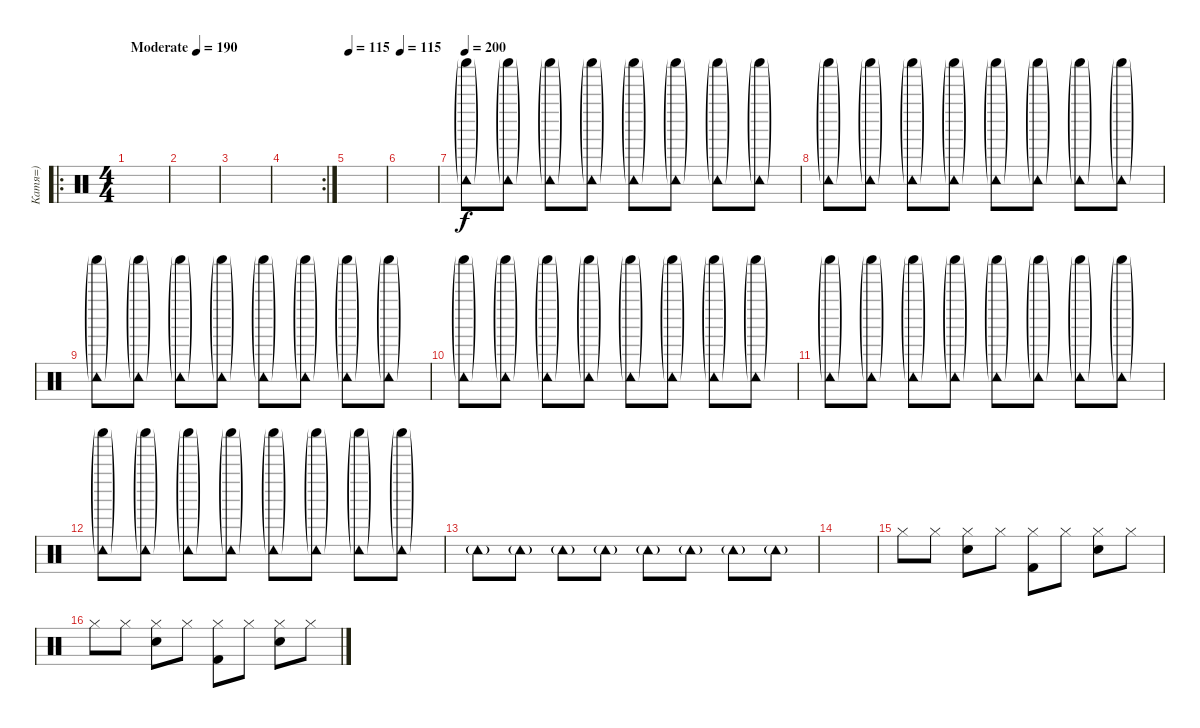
\track ("Катя=)" "Катя=)") {instrument percussion}
\staff {score}
\articulation defaults
\ro
\ts (4 4)
\tempo (190 "Moderate")
\tempo 115
\tempo (190 "Moderate")
\clef neutral
\ks c
|
|
|
\rc 2
|
\tempo 115
|
\tempo 115
|
\tempo 200
("Shaker (hit)"{g} "Tambourine (hit)"{g}).8 ("Shaker (hit)"{g} "Tambourine (hit)"{g}).8 ("Shaker (hit)"{g} "Tambourine (hit)"{g}).8 ("Shaker (hit)"{g} "Tambourine (hit)"{g}).8 ("Shaker (hit)"{g} "Tambourine (hit)"{g}).8 ("Shaker (hit)"{g} "Tambourine (hit)"{g}).8 ("Shaker (hit)"{g} "Tambourine (hit)"{g}).8 ("Shaker (hit)"{g} "Tambourine (hit)"{g}).8 |
("Shaker (hit)"{g} "Tambourine (hit)"{g}).8 ("Shaker (hit)"{g} "Tambourine (hit)"{g}).8 ("Shaker (hit)"{g} "Tambourine (hit)"{g}).8 ("Shaker (hit)"{g} "Tambourine (hit)"{g}).8 ("Shaker (hit)"{g} "Tambourine (hit)"{g}).8 ("Shaker (hit)"{g} "Tambourine (hit)"{g}).8 ("Shaker (hit)"{g} "Tambourine (hit)"{g}).8 ("Shaker (hit)"{g} "Tambourine (hit)"{g}).8 |
("Shaker (hit)"{g} "Tambourine (hit)"{g}).8 ("Shaker (hit)"{g} "Tambourine (hit)"{g}).8 ("Shaker (hit)"{g} "Tambourine (hit)"{g}).8 ("Shaker (hit)"{g} "Tambourine (hit)"{g}).8 ("Shaker (hit)"{g} "Tambourine (hit)"{g}).8 ("Shaker (hit)"{g} "Tambourine (hit)"{g}).8 ("Shaker (hit)"{g} "Tambourine (hit)"{g}).8 ("Shaker (hit)"{g} "Tambourine (hit)"{g}).8 |
("Shaker (hit)"{g} "Tambourine (hit)"{g}).8 ("Shaker (hit)"{g} "Tambourine (hit)"{g}).8 ("Shaker (hit)"{g} "Tambourine (hit)"{g}).8 ("Shaker (hit)"{g} "Tambourine (hit)"{g}).8 ("Shaker (hit)"{g} "Tambourine (hit)"{g}).8 ("Shaker (hit)"{g} "Tambourine (hit)"{g}).8 ("Shaker (hit)"{g} "Tambourine (hit)"{g}).8 ("Shaker (hit)"{g} "Tambourine (hit)"{g}).8 |
("Shaker (hit)"{g} "Tambourine (hit)"{g}).8 ("Shaker (hit)"{g} "Tambourine (hit)"{g}).8 ("Shaker (hit)"{g} "Tambourine (hit)"{g}).8 ("Shaker (hit)"{g} "Tambourine (hit)"{g}).8 ("Shaker (hit)"{g} "Tambourine (hit)"{g}).8 ("Shaker (hit)"{g} "Tambourine (hit)"{g}).8 ("Shaker (hit)"{g} "Tambourine (hit)"{g}).8 ("Shaker (hit)"{g} "Tambourine (hit)"{g}).8 |
("Shaker (hit)"{g} "Tambourine (hit)"{g}).8 ("Shaker (hit)"{g} "Tambourine (hit)"{g}).8 ("Shaker (hit)"{g} "Tambourine (hit)"{g}).8 ("Shaker (hit)"{g} "Tambourine (hit)"{g}).8 ("Shaker (hit)"{g} "Tambourine (hit)"{g}).8 ("Shaker (hit)"{g} "Tambourine (hit)"{g}).8 ("Shaker (hit)"{g} "Tambourine (hit)"{g}).8 ("Shaker (hit)"{g} "Tambourine (hit)"{g}).8 |
"Tambourine (hit)"{g}.8 "Tambourine (hit)"{g}.8 "Tambourine (hit)"{g}.8 "Tambourine (hit)"{g}.8 "Tambourine (hit)"{g}.8 "Tambourine (hit)"{g}.8 "Tambourine (hit)"{g}.8 "Tambourine (hit)"{g}.8 |
|
"Hi-Hat (closed)".8{dy f} "Hi-Hat (closed)".8 ("Hi-Hat (closed)" "Electric Snare (hit)").8 "Hi-Hat (closed)".8 ("Hi-Hat (closed)" "Kick (hit) 2").8 "Hi-Hat (closed)".8 ("Hi-Hat (closed)" "Electric Snare (hit)").8 "Hi-Hat (closed)".8 |
"Hi-Hat (closed)".8 "Hi-Hat (closed)".8 ("Hi-Hat (closed)" "Electric Snare (hit)").8 "Hi-Hat (closed)".8 ("Hi-Hat (closed)" "Kick (hit) 2").8 "Hi-Hat (closed)".8 ("Hi-Hat (closed)" "Electric Snare (hit)").8 "Hi-Hat (closed)".8
